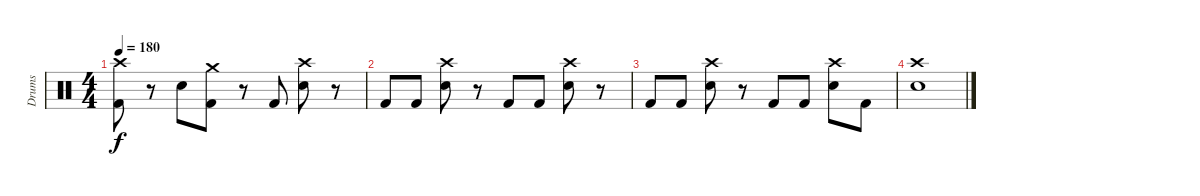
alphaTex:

\track ("Drums" "Drums") {instrument percussion}
\staff {score}
\articulation defaults
\ts (4 4)
\tempo 180
\clef neutral
\ks c
("Crash high (hit)" "Kick (hit) 2").8{dy f} r.8 "Electric Snare (hit)".8 ("Crash medium (hit)" "Kick (hit) 2").8 r.8 "Kick (hit) 2".8 ("Crash high (hit)" "Electric Snare (hit)").8 r.8 |
"Kick (hit) 2".8 "Kick (hit) 2".8 ("Crash high (hit)" "Electric Snare (hit)").8 r.8 "Kick (hit) 2".8 "Kick (hit) 2".8 ("Crash high (hit)" "Electric Snare (hit)").8 r.8 |
"Kick (hit) 2".8 "Kick (hit) 2".8 ("Crash high (hit)" "Electric Snare (hit)").8 r.8 "Kick (hit) 2".8 "Kick (hit) 2".8 ("Crash high (hit)" "Electric Snare (hit)").8 "Kick (hit) 2".8 |
("Crash high (hit)" "Electric Snare (hit)").1
